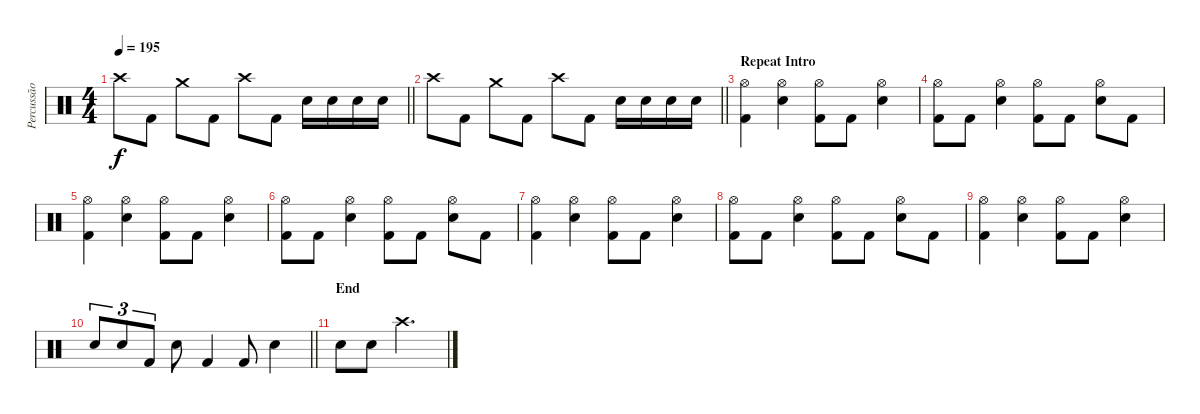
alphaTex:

\track ("Percussão" "Percussão") {instrument percussion}
\staff {score}
\articulation defaults
\ts (4 4)
\tempo 195
\clef neutral
\barLineRight lightlight
\ks c "Crash high (hit)".8{dy f} "Kick (hit) 2".8 "Crash medium (hit)".8 "Kick (hit) 2".8 "Crash high (hit)".8 "Kick (hit) 2".8 "Snare (hit) 2".16 "Snare (hit) 2".16 "Snare (hit) 2".16 "Snare (hit) 2".16
|
\barLineRight lightlight "Crash high (hit)".8 "Kick (hit) 2".8 "Crash medium (hit)".8 "Kick (hit) 2".8 "Crash high (hit)".8 "Kick (hit) 2".8 "Snare (hit) 2".16 "Snare (hit) 2".16 "Snare (hit) 2".16 "Snare (hit) 2".16
|
\section ("" "Repeat Intro")
("Hi-Hat (open)" "Kick (hit) 2").4 ("Hi-Hat (open)" "Snare (hit) 2").4 ("Hi-Hat (open)" "Kick (hit) 2").8 "Kick (hit) 2".8 ("Hi-Hat (open)" "Snare (hit) 2").4 |
("Hi-Hat (open)" "Kick (hit) 2").8 "Kick (hit) 2".8 ("Hi-Hat (open)" "Snare (hit) 2").4 ("Hi-Hat (open)" "Kick (hit) 2").8 "Kick (hit) 2".8 ("Hi-Hat (open)" "Snare (hit) 2").8 "Kick (hit) 2".8 |
("Hi-Hat (open)" "Kick (hit) 2").4 ("Hi-Hat (open)" "Snare (hit) 2").4 ("Hi-Hat (open)" "Kick (hit) 2").8 "Kick (hit) 2".8 ("Hi-Hat (open)" "Snare (hit) 2").4 |
("Hi-Hat (open)" "Kick (hit) 2").8 "Kick (hit) 2".8 ("Hi-Hat (open)" "Snare (hit) 2").4 ("Hi-Hat (open)" "Kick (hit) 2").8 "Kick (hit) 2".8 ("Hi-Hat (open)" "Snare (hit) 2").8 "Kick (hit) 2".8 |
("Hi-Hat (open)" "Kick (hit) 2").4 ("Hi-Hat (open)" "Snare (hit) 2").4 ("Hi-Hat (open)" "Kick (hit) 2").8 "Kick (hit) 2".8 ("Hi-Hat (open)" "Snare (hit) 2").4 |
("Hi-Hat (open)" "Kick (hit) 2").8 "Kick (hit) 2".8 ("Hi-Hat (open)" "Snare (hit) 2").4 ("Hi-Hat (open)" "Kick (hit) 2").8 "Kick (hit) 2".8 ("Hi-Hat (open)" "Snare (hit) 2").8 "Kick (hit) 2".8 |
("Hi-Hat (open)" "Kick (hit) 2").4 ("Hi-Hat (open)" "Snare (hit) 2").4 ("Hi-Hat (open)" "Kick (hit) 2").8 "Kick (hit) 2".8 ("Hi-Hat (open)" "Snare (hit) 2").4 |
\barLineRight lightlight "Snare (hit) 2".8{tu (3 2)} "Snare (hit) 2".8{tu (3 2)} "Kick (hit) 2".8{tu (3 2)} "Snare (hit) 2".8 "Kick (hit) 2".4 "Kick (hit) 2".8 "Snare (hit) 2".4
|
\section ("" "End")
"Snare (hit) 2".8 "Snare (hit) 2".8 "Crash high (hit)".2{d}
